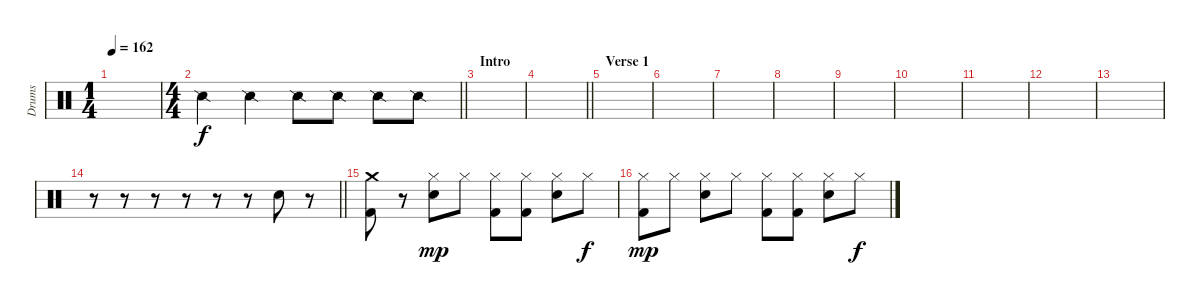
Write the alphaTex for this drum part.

\track ("Drums" "Drums") {instrument percussion}
\staff {score}
\articulation defaults
\ts (1 4)
\tempo 162
\clef neutral
\ks c
|
\ts (4 4)
\barLineRight lightlight "Snare (side stick) 2".4 "Snare (side stick) 2".4 "Snare (side stick) 2".8 "Snare (side stick) 2".8 "Snare (side stick) 2".8 "Snare (side stick) 2".8
|
\section ("" "Intro")
|
\barLineRight lightlight
|
\section ("" "Verse 1")
|
|
|
|
|
|
|
|
|
\barLineRight lightlight
r.8 r.8 r.8 r.8 r.8 r.8 "Snare (hit) 2".8 r.8 |
("Crash medium (hit)" "Kick (hit) 2").8 r.8 ("Hi-Hat (closed)" "Snare (hit) 2").8{dy mp} "Hi-Hat (closed)".8 ("Hi-Hat (closed)" "Kick (hit) 2").8 ("Hi-Hat (closed)" "Kick (hit) 2").8 ("Hi-Hat (closed)" "Snare (hit) 2").8 "Hi-Hat (closed)".8{dy f} |
("Hi-Hat (closed)" "Kick (hit) 2").8{dy mp} "Hi-Hat (closed)".8 ("Hi-Hat (closed)" "Snare (hit) 2").8 "Hi-Hat (closed)".8 ("Hi-Hat (closed)" "Kick (hit) 2").8 ("Hi-Hat (closed)" "Kick (hit) 2").8 ("Hi-Hat (closed)" "Snare (hit) 2").8 "Hi-Hat (closed)".8{dy f}
